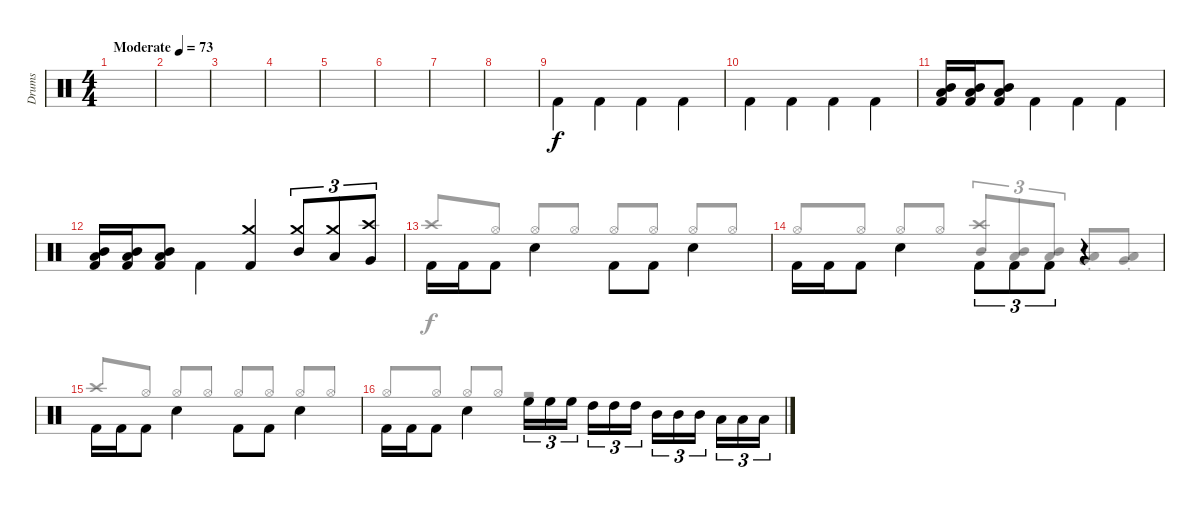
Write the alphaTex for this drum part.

\track ("Drums" "Drums") {instrument percussion}
\staff {score}
\articulation defaults
\voice
\ts (4 4)
\tempo (73 "Moderate")
\clef neutral
\ks c
|
|
|
|
|
|
|
|
"Kick (hit) 2".4{beam Down} "Kick (hit) 2".4{beam Down} "Kick (hit) 2".4{beam Down} "Kick (hit) 2".4{beam Down} |
"Kick (hit) 2".4{beam Down} "Kick (hit) 2".4{beam Down} "Kick (hit) 2".4{beam Down} "Kick (hit) 2".4{beam Down} |
("Kick (hit) 2" "Mid Tom (hit)" "Low Tom (hit)").16{beam Up} ("Kick (hit) 2" "Mid Tom (hit)" "Low Tom (hit)").16{beam Up} ("Kick (hit) 2" "Mid Tom (hit)" "Low Tom (hit)").8{beam Up} "Kick (hit) 2".4{beam Down} "Kick (hit) 2".4{beam Down} "Kick (hit) 2".4{beam Down} |
("Kick (hit) 2" "Mid Tom (hit)" "Low Tom (hit)").16{beam Up} ("Kick (hit) 2" "Mid Tom (hit)" "Low Tom (hit)").16{beam Up} ("Kick (hit) 2" "Mid Tom (hit)" "Low Tom (hit)").8{beam Up} "Kick (hit) 2".4{beam Down} ("Crash medium (hit)" "Kick (hit) 2").4{beam Up} ("Mid Tom (hit)" "Crash medium (hit)").8{tu (3 2) beam Up} ("Low Tom (hit)" "Crash medium (hit)").8{tu (3 2) beam Up} ("Very Low Tom (hit)" "Crash high (hit)").8{tu (3 2) beam Up} |
"Kick (hit) 2".16{beam Down} "Kick (hit) 2".16{beam Down} "Kick (hit) 2".8{beam Down} "Snare (hit) 2".4{beam Down} "Kick (hit) 2".8{beam Down} "Kick (hit) 2".8{beam Down} "Snare (hit) 2".4{beam Down} |
"Kick (hit) 2".16{beam Down} "Kick (hit) 2".16{beam Down} "Kick (hit) 2".8{beam Down} "Snare (hit) 2".4{beam Down} "Kick (hit) 2".8{tu (3 2) beam Down} "Kick (hit) 2".8{tu (3 2) beam Down} "Kick (hit) 2".8{tu (3 2) beam Down} r.4 |
"Kick (hit) 2".16{beam Down} "Kick (hit) 2".16{beam Down} "Kick (hit) 2".8{beam Down} "Snare (hit) 2".4{beam Down} "Kick (hit) 2".8{beam Down} "Kick (hit) 2".8{beam Down} "Snare (hit) 2".4{beam Down} |
"Kick (hit) 2".16{beam Down} "Kick (hit) 2".16{beam Down} "Kick (hit) 2".8{beam Down} "Snare (hit) 2".4{beam Down} "High Floor Tom (hit)".16{tu (3 2) beam Down} "High Floor Tom (hit)".16{tu (3 2) beam Down} "High Floor Tom (hit)".16{tu (3 2) beam Down beam splitsecondary} "High Tom (hit)".16{tu (3 2) beam Down} "High Tom (hit)".16{tu (3 2) beam Down} "High Tom (hit)".16{tu (3 2) beam Down} "Mid Tom (hit)".16{tu (3 2) beam Down} "Mid Tom (hit)".16{tu (3 2) beam Down} "Mid Tom (hit)".16{tu (3 2) beam Down beam splitsecondary} "Low Tom (hit)".16{tu (3 2) beam Down} "Low Tom (hit)".16{tu (3 2) beam Down} "Low Tom (hit)".16{tu (3 2) beam Down}
\voice
\clef neutral
\ottava regular
\simile none
\ks c
|
|
|
|
|
|
|
|
|
|
|
|
"Crash high (hit)".8{beam Up} "Hi-Hat (open)".8{beam Up} "Hi-Hat (open)".8{beam Up} "Hi-Hat (open)".8{beam Up} "Hi-Hat (open)".8{beam Up} "Hi-Hat (open)".8{beam Up} "Hi-Hat (open)".8{beam Up} "Hi-Hat (open)".8{beam Up} |
"Hi-Hat (open)".8{beam Up} "Hi-Hat (open)".8{beam Up} "Hi-Hat (open)".8{beam Up} "Hi-Hat (open)".8{beam Up} ("Crash high (hit)" "Mid Tom (hit)").8{tu (3 2) beam Up} ("Mid Tom (hit)" "Low Tom (hit)").8{tu (3 2) beam Up} ("Mid Tom (hit)" "Low Tom (hit)").8{tu (3 2) beam Up} ("Very Low Tom (hit)"{st} "Low Tom (hit)"{st}).8{beam Up} ("Low Tom (hit)"{st} "Very Low Tom (hit)"{st}).8{beam Up} |
"Crash high (hit)".8{beam Up} "Hi-Hat (open)".8{beam Up} "Hi-Hat (open)".8{beam Up} "Hi-Hat (open)".8{beam Up} "Hi-Hat (open)".8{beam Up} "Hi-Hat (open)".8{beam Up} "Hi-Hat (open)".8{beam Up} "Hi-Hat (open)".8{beam Up} |
"Hi-Hat (open)".8{beam Up} "Hi-Hat (open)".8{beam Up} "Hi-Hat (open)".8{beam Up} "Hi-Hat (open)".8{beam Up} r.2
